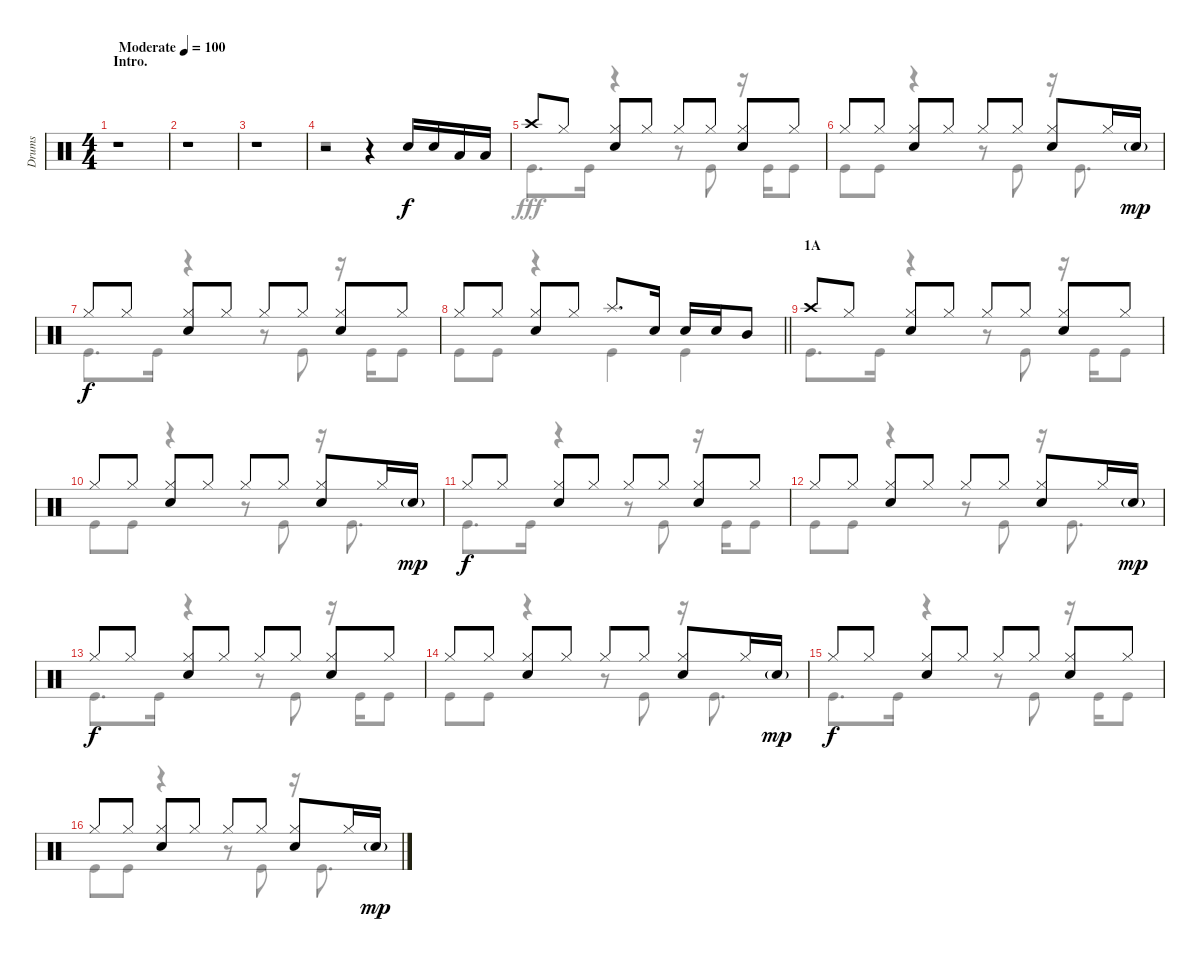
\track ("Drums" "Drums") {instrument percussion}
\staff {score}
\articulation defaults
\voice
\ts (4 4)
\section ("" "Intro.")
\tempo (100 "Moderate")
\clef neutral
\ks c
r.1{dy f} |
r.1 |
r.1 |
r.2 r.4 "Snare (hit) 2".16 "Snare (hit) 2".16 "Low Tom (hit)".16 "Low Tom (hit)".16 |
"Crash high (hit)".8 "Hi-Hat (closed)".8 ("Hi-Hat (closed)" "Snare (hit) 2").8 "Hi-Hat (closed)".8 "Hi-Hat (closed)".8 "Hi-Hat (closed)".8 ("Hi-Hat (closed)" "Snare (hit) 2").8 "Hi-Hat (closed)".8 |
"Hi-Hat (closed)".8 "Hi-Hat (closed)".8 ("Hi-Hat (closed)" "Snare (hit) 2").8 "Hi-Hat (closed)".8 "Hi-Hat (closed)".8 "Hi-Hat (closed)".8 ("Hi-Hat (closed)" "Snare (hit) 2").8 "Hi-Hat (closed)".16 "Snare (hit) 2"{g}.16{dy mp} |
"Hi-Hat (closed)".8{dy f} "Hi-Hat (closed)".8 ("Hi-Hat (closed)" "Snare (hit) 2").8 "Hi-Hat (closed)".8 "Hi-Hat (closed)".8 "Hi-Hat (closed)".8 ("Hi-Hat (closed)" "Snare (hit) 2").8 "Hi-Hat (closed)".8 |
\barLineRight lightlight "Hi-Hat (closed)".8 "Hi-Hat (closed)".8
("Hi-Hat (closed)" "Snare (hit) 2").8 "Hi-Hat (closed)".8 "Splash (hit)".8{d} "Snare (hit) 2".16 "Snare (hit) 2".16 "Snare (hit) 2".16 "Mid Tom (hit)".8 |
\section ("" "1A")
"Crash high (hit)".8 "Hi-Hat (closed)".8 ("Hi-Hat (closed)" "Snare (hit) 2").8 "Hi-Hat (closed)".8 "Hi-Hat (closed)".8 "Hi-Hat (closed)".8 ("Hi-Hat (closed)" "Snare (hit) 2").8 "Hi-Hat (closed)".8 |
"Hi-Hat (closed)".8 "Hi-Hat (closed)".8 ("Hi-Hat (closed)" "Snare (hit) 2").8 "Hi-Hat (closed)".8 "Hi-Hat (closed)".8 "Hi-Hat (closed)".8 ("Hi-Hat (closed)" "Snare (hit) 2").8 "Hi-Hat (closed)".16 "Snare (hit) 2"{g}.16{dy mp} |
"Hi-Hat (closed)".8{dy f} "Hi-Hat (closed)".8 ("Hi-Hat (closed)" "Snare (hit) 2").8 "Hi-Hat (closed)".8 "Hi-Hat (closed)".8 "Hi-Hat (closed)".8 ("Hi-Hat (closed)" "Snare (hit) 2").8 "Hi-Hat (closed)".8 |
"Hi-Hat (closed)".8 "Hi-Hat (closed)".8 ("Hi-Hat (closed)" "Snare (hit) 2").8 "Hi-Hat (closed)".8 "Hi-Hat (closed)".8 "Hi-Hat (closed)".8 ("Hi-Hat (closed)" "Snare (hit) 2").8 "Hi-Hat (closed)".16 "Snare (hit) 2"{g}.16{dy mp} |
"Hi-Hat (closed)".8{dy f} "Hi-Hat (closed)".8 ("Hi-Hat (closed)" "Snare (hit) 2").8 "Hi-Hat (closed)".8 "Hi-Hat (closed)".8 "Hi-Hat (closed)".8 ("Hi-Hat (closed)" "Snare (hit) 2").8 "Hi-Hat (closed)".8 |
"Hi-Hat (closed)".8 "Hi-Hat (closed)".8 ("Hi-Hat (closed)" "Snare (hit) 2").8 "Hi-Hat (closed)".8 "Hi-Hat (closed)".8 "Hi-Hat (closed)".8 ("Hi-Hat (closed)" "Snare (hit) 2").8 "Hi-Hat (closed)".16 "Snare (hit) 2"{g}.16{dy mp} |
"Hi-Hat (closed)".8{dy f} "Hi-Hat (closed)".8 ("Hi-Hat (closed)" "Snare (hit) 2").8 "Hi-Hat (closed)".8 "Hi-Hat (closed)".8 "Hi-Hat (closed)".8 ("Hi-Hat (closed)" "Snare (hit) 2").8 "Hi-Hat (closed)".8 |
"Hi-Hat (closed)".8 "Hi-Hat (closed)".8 ("Hi-Hat (closed)" "Snare (hit) 2").8 "Hi-Hat (closed)".8 "Hi-Hat (closed)".8 "Hi-Hat (closed)".8 ("Hi-Hat (closed)" "Snare (hit) 2").8 "Hi-Hat (closed)".16 "Snare (hit) 2"{g}.16{dy mp}
\voice
\clef neutral
\ottava regular
\simile none
\ks c
r.1{dy fff} |
r.1 |
r.1 |
r.1 |
"Kick (hit)".8{d} "Kick (hit)".16 r.4 r.8 "Kick (hit)".8 r.16 "Kick (hit)".16 "Kick (hit)".8 |
"Kick (hit)".8 "Kick (hit)".8 r.4 r.8 "Kick (hit)".8 r.16 "Kick (hit)".8{d} |
"Kick (hit)".8{d} "Kick (hit)".16 r.4 r.8 "Kick (hit)".8 r.16 "Kick (hit)".16 "Kick (hit)".8 |
\barLineRight lightlight "Kick (hit)".8 "Kick (hit)".8
r.4 "Kick (hit)".4 "Kick (hit)".4 |
"Kick (hit)".8{d} "Kick (hit)".16 r.4 r.8 "Kick (hit)".8 r.16 "Kick (hit)".16 "Kick (hit)".8 |
"Kick (hit)".8 "Kick (hit)".8 r.4 r.8 "Kick (hit)".8 r.16 "Kick (hit)".8{d} |
"Kick (hit)".8{d} "Kick (hit)".16 r.4 r.8 "Kick (hit)".8 r.16 "Kick (hit)".16 "Kick (hit)".8 |
"Kick (hit)".8 "Kick (hit)".8 r.4 r.8 "Kick (hit)".8 r.16 "Kick (hit)".8{d} |
"Kick (hit)".8{d} "Kick (hit)".16 r.4 r.8 "Kick (hit)".8 r.16 "Kick (hit)".16 "Kick (hit)".8 |
"Kick (hit)".8 "Kick (hit)".8 r.4 r.8 "Kick (hit)".8 r.16 "Kick (hit)".8{d} |
"Kick (hit)".8{d} "Kick (hit)".16 r.4 r.8 "Kick (hit)".8 r.16 "Kick (hit)".16 "Kick (hit)".8 |
"Kick (hit)".8 "Kick (hit)".8 r.4 r.8 "Kick (hit)".8 r.16 "Kick (hit)".8{d}
